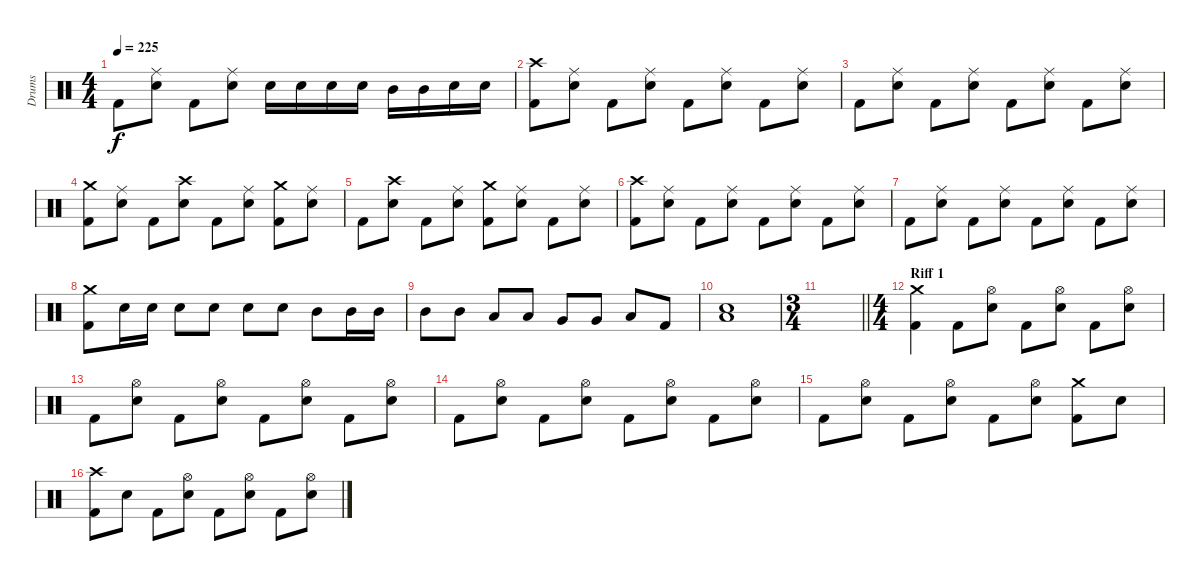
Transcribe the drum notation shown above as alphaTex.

\track ("Drums" "Drums") {instrument percussion}
\staff {score}
\articulation defaults
\ts (4 4)
\tempo 225
\clef neutral
\ks c "Kick (hit) 2".8{dy f}
("Electric Snare (hit)" "Ride (middle)").8 "Kick (hit) 2".8 ("Electric Snare (hit)" "Ride (middle)").8 "Electric Snare (hit)".16 "Electric Snare (hit)".16 "Electric Snare (hit)".16 "Electric Snare (hit)".16 "Mid Tom (hit)".16 "Mid Tom (hit)".16 "Electric Snare (hit)".16 "Electric Snare (hit)".16 |
("Kick (hit) 2" "Crash high (hit)").8 ("Electric Snare (hit)" "Ride (middle)").8 "Kick (hit) 2".8 ("Electric Snare (hit)" "Ride (middle)").8 "Kick (hit) 2".8 ("Electric Snare (hit)" "Ride (middle)").8 "Kick (hit) 2".8 ("Electric Snare (hit)" "Ride (middle)").8 |
"Kick (hit) 2".8 ("Electric Snare (hit)" "Ride (middle)").8 "Kick (hit) 2".8 ("Electric Snare (hit)" "Ride (middle)").8 "Kick (hit) 2".8 ("Electric Snare (hit)" "Ride (middle)").8 "Kick (hit) 2".8 ("Electric Snare (hit)" "Ride (middle)").8 |
("Kick (hit) 2" "Crash medium (hit)").8 ("Electric Snare (hit)" "Ride (middle)").8 "Kick (hit) 2".8 ("Electric Snare (hit)" "Crash high (hit)").8 "Kick (hit) 2".8 ("Electric Snare (hit)" "Ride (middle)").8 ("Kick (hit) 2" "Crash medium (hit)").8 ("Electric Snare (hit)" "Ride (middle)").8 |
"Kick (hit) 2".8 ("Electric Snare (hit)" "Crash high (hit)").8 "Kick (hit) 2".8 ("Electric Snare (hit)" "Ride (middle)").8 ("Kick (hit) 2" "Crash medium (hit)").8 ("Electric Snare (hit)" "Ride (middle)").8 "Kick (hit) 2".8 ("Electric Snare (hit)" "Ride (middle)").8 |
("Kick (hit) 2" "Crash high (hit)").8 ("Electric Snare (hit)" "Ride (middle)").8 "Kick (hit) 2".8 ("Electric Snare (hit)" "Ride (middle)").8 "Kick (hit) 2".8 ("Electric Snare (hit)" "Ride (middle)").8 "Kick (hit) 2".8 ("Electric Snare (hit)" "Ride (middle)").8 |
"Kick (hit) 2".8 ("Electric Snare (hit)" "Ride (middle)").8 "Kick (hit) 2".8 ("Electric Snare (hit)" "Ride (middle)").8 "Kick (hit) 2".8 ("Electric Snare (hit)" "Ride (middle)").8 "Kick (hit) 2".8 ("Electric Snare (hit)" "Ride (middle)").8 |
("Kick (hit) 2" "Crash medium (hit)").8 "Electric Snare (hit)".16 "Electric Snare (hit)".16 "Electric Snare (hit)".8 "Electric Snare (hit)".8 "Electric Snare (hit)".8 "Electric Snare (hit)".8 "Mid Tom (hit)".8 "Mid Tom (hit)".16 "Mid Tom (hit)".16 |
"Mid Tom (hit)".8 "Mid Tom (hit)".8 "Low Tom (hit)".8 "Low Tom (hit)".8 "Very Low Tom (hit)".8 "Very Low Tom (hit)".8 "Low Floor Tom (hit)".8 "Kick (hit) 2".8 |
("Electric Snare (hit)" "Low Floor Tom (hit)").1 |
\ts (3 4)
\barLineRight lightlight
|
\ts (4 4)
\section ("" "Riff 1")
("Crash medium (hit)" "Kick (hit) 2").4 "Kick (hit) 2".8 ("Hi-Hat (open)" "Electric Snare (hit)").8 "Kick (hit) 2".8 ("Hi-Hat (open)" "Electric Snare (hit)").8 "Kick (hit) 2".8 ("Hi-Hat (open)" "Electric Snare (hit)").8 |
"Kick (hit) 2".8 ("Hi-Hat (open)" "Electric Snare (hit)").8 "Kick (hit) 2".8 ("Hi-Hat (open)" "Electric Snare (hit)").8 "Kick (hit) 2".8 ("Hi-Hat (open)" "Electric Snare (hit)").8 "Kick (hit) 2".8 ("Hi-Hat (open)" "Electric Snare (hit)").8 |
"Kick (hit) 2".8 ("Hi-Hat (open)" "Electric Snare (hit)").8 "Kick (hit) 2".8 ("Hi-Hat (open)" "Electric Snare (hit)").8 "Kick (hit) 2".8 ("Hi-Hat (open)" "Electric Snare (hit)").8 "Kick (hit) 2".8 ("Hi-Hat (open)" "Electric Snare (hit)").8 |
"Kick (hit) 2".8 ("Hi-Hat (open)" "Electric Snare (hit)").8 "Kick (hit) 2".8 ("Hi-Hat (open)" "Electric Snare (hit)").8 "Kick (hit) 2".8 ("Hi-Hat (open)" "Electric Snare (hit)").8 ("Crash medium (hit)" "Kick (hit) 2").8 "Electric Snare (hit)".8 |
("Crash high (hit)" "Kick (hit) 2").8 "Electric Snare (hit)".8 "Kick (hit) 2".8 ("Hi-Hat (open)" "Electric Snare (hit)").8 "Kick (hit) 2".8 ("Hi-Hat (open)" "Electric Snare (hit)").8 "Kick (hit) 2".8 ("Hi-Hat (open)" "Electric Snare (hit)").8
